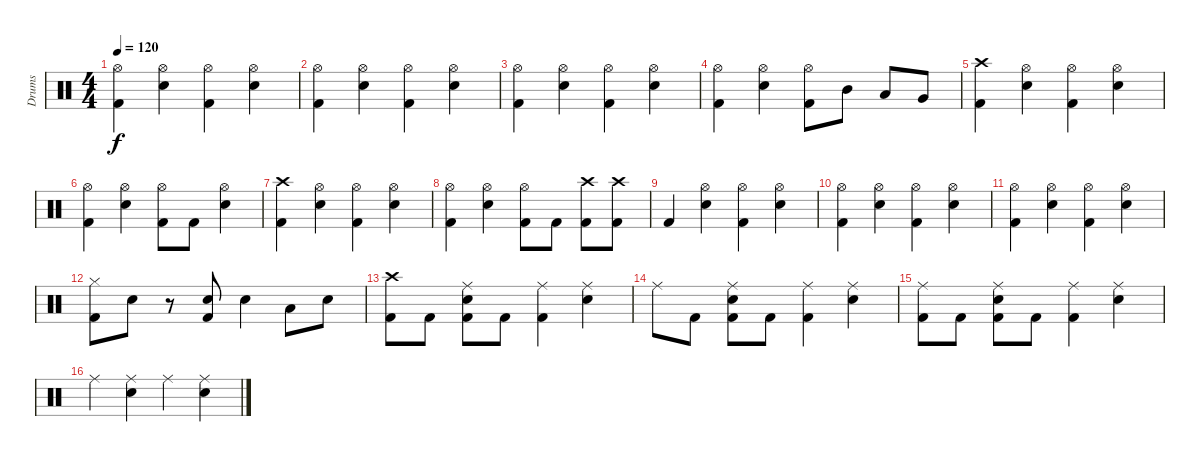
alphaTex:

\track ("Drums" "Drums") {instrument percussion}
\staff {score}
\articulation defaults
\ts (4 4)
\tempo 120
\clef neutral
\ks c
("Hi-Hat (open)" "Kick (hit) 2").4{dy f} ("Hi-Hat (open)" "Electric Snare (hit)").4 ("Hi-Hat (open)" "Kick (hit) 2").4 ("Hi-Hat (open)" "Electric Snare (hit)").4 |
("Hi-Hat (open)" "Kick (hit) 2").4 ("Hi-Hat (open)" "Electric Snare (hit)").4 ("Hi-Hat (open)" "Kick (hit) 2").4 ("Hi-Hat (open)" "Electric Snare (hit)").4 |
("Hi-Hat (open)" "Kick (hit) 2").4 ("Hi-Hat (open)" "Electric Snare (hit)").4 ("Hi-Hat (open)" "Kick (hit) 2").4 ("Hi-Hat (open)" "Electric Snare (hit)").4 |
("Hi-Hat (open)" "Kick (hit) 2").4 ("Hi-Hat (open)" "Electric Snare (hit)").4 ("Hi-Hat (open)" "Kick (hit) 2").8 "Mid Tom (hit)".8 "Low Tom (hit)".8 "Very Low Tom (hit)".8 |
("Crash high (hit)" "Kick (hit) 2").4 ("Hi-Hat (open)" "Electric Snare (hit)").4 ("Hi-Hat (open)" "Kick (hit) 2").4 ("Hi-Hat (open)" "Electric Snare (hit)").4 |
("Hi-Hat (open)" "Kick (hit) 2").4 ("Hi-Hat (open)" "Electric Snare (hit)").4 ("Hi-Hat (open)" "Kick (hit) 2").8 "Kick (hit) 2".8 ("Hi-Hat (open)" "Electric Snare (hit)").4 |
("Crash high (hit)" "Kick (hit) 2").4 ("Hi-Hat (open)" "Electric Snare (hit)").4 ("Hi-Hat (open)" "Kick (hit) 2").4 ("Hi-Hat (open)" "Electric Snare (hit)").4 |
("Hi-Hat (open)" "Kick (hit) 2").4 ("Hi-Hat (open)" "Electric Snare (hit)").4 ("Hi-Hat (open)" "Kick (hit) 2").8 "Kick (hit) 2".8 ("Crash high (hit)" "Kick (hit) 2").8 ("Crash high (hit)" "Kick (hit) 2").8 |
"Kick (hit) 2".4 ("Hi-Hat (open)" "Electric Snare (hit)").4 ("Hi-Hat (open)" "Kick (hit) 2").4 ("Hi-Hat (open)" "Electric Snare (hit)").4 |
("Hi-Hat (open)" "Kick (hit) 2").4 ("Hi-Hat (open)" "Electric Snare (hit)").4 ("Hi-Hat (open)" "Kick (hit) 2").4 ("Hi-Hat (open)" "Electric Snare (hit)").4 |
("Hi-Hat (open)" "Kick (hit) 2").4 ("Hi-Hat (open)" "Electric Snare (hit)").4 ("Hi-Hat (open)" "Kick (hit) 2").4 ("Hi-Hat (open)" "Electric Snare (hit)").4 |
("Hi-Hat (closed)" "Kick (hit) 2").8 "Electric Snare (hit)".8 r.8 ("Electric Snare (hit)" "Kick (hit) 2").8 "Electric Snare (hit)".4 "Low Tom (hit)".8 "Electric Snare (hit)".8 |
("Crash high (hit)" "Kick (hit) 2").8 "Kick (hit) 2".8 ("Ride (middle)" "Electric Snare (hit)" "Kick (hit) 2").8 "Kick (hit) 2".8 ("Ride (middle)" "Kick (hit) 2").4 ("Ride (middle)" "Electric Snare (hit)").4 |
"Ride (middle)".8 "Kick (hit) 2".8 ("Ride (middle)" "Electric Snare (hit)" "Kick (hit) 2").8 "Kick (hit) 2".8 ("Ride (middle)" "Kick (hit) 2").4 ("Ride (middle)" "Electric Snare (hit)").4 |
("Ride (middle)" "Kick (hit) 2").8 "Kick (hit) 2".8 ("Ride (middle)" "Electric Snare (hit)" "Kick (hit) 2").8 "Kick (hit) 2".8 ("Ride (middle)" "Kick (hit) 2").4 ("Ride (middle)" "Electric Snare (hit)").4 |
"Ride (middle)".4 ("Ride (middle)" "Electric Snare (hit)").4 "Ride (middle)".4 ("Ride (middle)" "Electric Snare (hit)").4
